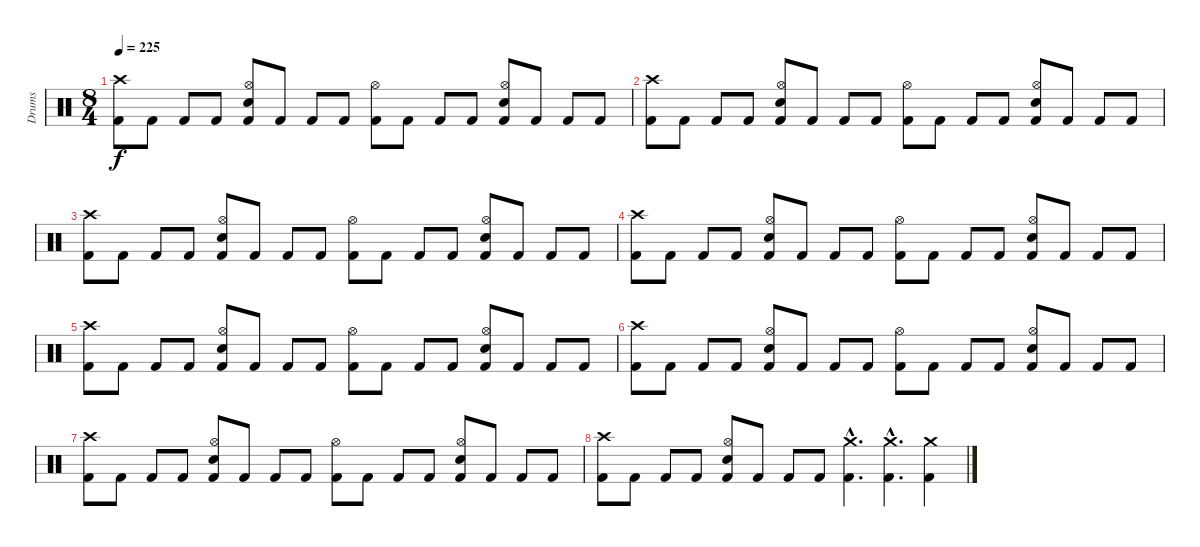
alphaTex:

\track ("Drums" "Drums") {instrument percussion}
\staff {score}
\articulation defaults
\ts (8 4)
\tempo 225
\clef neutral
\ks c
("Crash high (hit)" "Kick (hit) 2").8{dy f} "Kick (hit) 2".8 "Kick (hit) 2".8 "Kick (hit) 2".8 ("Hi-Hat (open)" "Electric Snare (hit)" "Kick (hit) 2").8 "Kick (hit) 2".8 "Kick (hit) 2".8 "Kick (hit) 2".8 ("Hi-Hat (open)" "Kick (hit) 2").8 "Kick (hit) 2".8 "Kick (hit) 2".8 "Kick (hit) 2".8 ("Hi-Hat (open)" "Electric Snare (hit)" "Kick (hit) 2").8 "Kick (hit) 2".8 "Kick (hit) 2".8 "Kick (hit) 2".8 |
("Crash high (hit)" "Kick (hit) 2").8 "Kick (hit) 2".8 "Kick (hit) 2".8 "Kick (hit) 2".8 ("Hi-Hat (open)" "Electric Snare (hit)" "Kick (hit) 2").8 "Kick (hit) 2".8 "Kick (hit) 2".8 "Kick (hit) 2".8 ("Hi-Hat (open)" "Kick (hit) 2").8 "Kick (hit) 2".8 "Kick (hit) 2".8 "Kick (hit) 2".8 ("Hi-Hat (open)" "Electric Snare (hit)" "Kick (hit) 2").8 "Kick (hit) 2".8 "Kick (hit) 2".8 "Kick (hit) 2".8 |
("Crash high (hit)" "Kick (hit) 2").8 "Kick (hit) 2".8 "Kick (hit) 2".8 "Kick (hit) 2".8 ("Hi-Hat (open)" "Electric Snare (hit)" "Kick (hit) 2").8 "Kick (hit) 2".8 "Kick (hit) 2".8 "Kick (hit) 2".8 ("Hi-Hat (open)" "Kick (hit) 2").8 "Kick (hit) 2".8 "Kick (hit) 2".8 "Kick (hit) 2".8 ("Hi-Hat (open)" "Electric Snare (hit)" "Kick (hit) 2").8 "Kick (hit) 2".8 "Kick (hit) 2".8 "Kick (hit) 2".8 |
("Crash high (hit)" "Kick (hit) 2").8 "Kick (hit) 2".8 "Kick (hit) 2".8 "Kick (hit) 2".8 ("Hi-Hat (open)" "Electric Snare (hit)" "Kick (hit) 2").8 "Kick (hit) 2".8 "Kick (hit) 2".8 "Kick (hit) 2".8 ("Hi-Hat (open)" "Kick (hit) 2").8 "Kick (hit) 2".8 "Kick (hit) 2".8 "Kick (hit) 2".8 ("Hi-Hat (open)" "Electric Snare (hit)" "Kick (hit) 2").8 "Kick (hit) 2".8 "Kick (hit) 2".8 "Kick (hit) 2".8 |
("Crash high (hit)" "Kick (hit) 2").8 "Kick (hit) 2".8 "Kick (hit) 2".8 "Kick (hit) 2".8 ("Hi-Hat (open)" "Electric Snare (hit)" "Kick (hit) 2").8 "Kick (hit) 2".8 "Kick (hit) 2".8 "Kick (hit) 2".8 ("Hi-Hat (open)" "Kick (hit) 2").8 "Kick (hit) 2".8 "Kick (hit) 2".8 "Kick (hit) 2".8 ("Hi-Hat (open)" "Electric Snare (hit)" "Kick (hit) 2").8 "Kick (hit) 2".8 "Kick (hit) 2".8 "Kick (hit) 2".8 |
("Crash high (hit)" "Kick (hit) 2").8 "Kick (hit) 2".8 "Kick (hit) 2".8 "Kick (hit) 2".8 ("Hi-Hat (open)" "Electric Snare (hit)" "Kick (hit) 2").8 "Kick (hit) 2".8 "Kick (hit) 2".8 "Kick (hit) 2".8 ("Hi-Hat (open)" "Kick (hit) 2").8 "Kick (hit) 2".8 "Kick (hit) 2".8 "Kick (hit) 2".8 ("Hi-Hat (open)" "Electric Snare (hit)" "Kick (hit) 2").8 "Kick (hit) 2".8 "Kick (hit) 2".8 "Kick (hit) 2".8 |
("Crash high (hit)" "Kick (hit) 2").8 "Kick (hit) 2".8 "Kick (hit) 2".8 "Kick (hit) 2".8 ("Hi-Hat (open)" "Electric Snare (hit)" "Kick (hit) 2").8 "Kick (hit) 2".8 "Kick (hit) 2".8 "Kick (hit) 2".8 ("Hi-Hat (open)" "Kick (hit) 2").8 "Kick (hit) 2".8 "Kick (hit) 2".8 "Kick (hit) 2".8 ("Hi-Hat (open)" "Electric Snare (hit)" "Kick (hit) 2").8 "Kick (hit) 2".8 "Kick (hit) 2".8 "Kick (hit) 2".8 |
("Crash high (hit)" "Kick (hit) 2").8 "Kick (hit) 2".8 "Kick (hit) 2".8 "Kick (hit) 2".8 ("Hi-Hat (open)" "Electric Snare (hit)" "Kick (hit) 2").8 "Kick (hit) 2".8 "Kick (hit) 2".8 "Kick (hit) 2".8 ("Crash medium (hit)"{hac} "Kick (hit) 2"{hac}).4{d} ("Crash medium (hit)"{hac} "Kick (hit) 2"{hac}).4{d} ("Crash medium (hit)" "Kick (hit) 2").4
